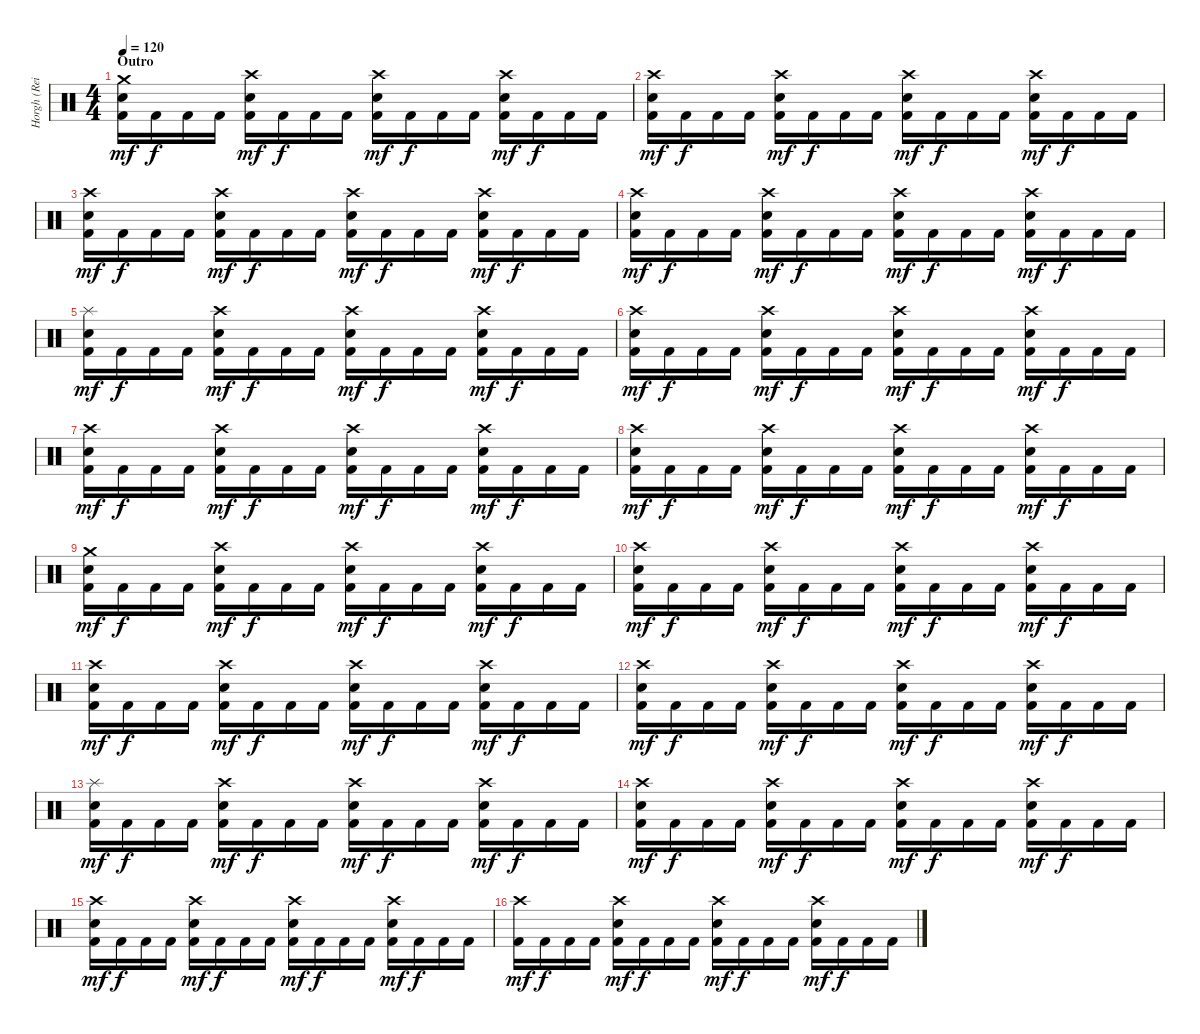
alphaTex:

\track ("Horgh (Reidar Horghagen)" "Horgh (Rei") {instrument percussion}
\staff {score}
\articulation defaults
\ts (4 4)
\section ("" "Outro")
\tempo 120
\clef neutral
\ks c
("Crash medium (hit)" "Snare (hit) 2" "Kick (hit) 2").16{dy mf} "Kick (hit) 2".16{dy f} "Kick (hit) 2".16 "Kick (hit) 2".16 ("Crash high (hit)" "Snare (hit) 2" "Kick (hit) 2").16{dy mf} "Kick (hit) 2".16{dy f} "Kick (hit) 2".16 "Kick (hit) 2".16 ("Crash high (hit)" "Snare (hit) 2" "Kick (hit) 2").16{dy mf} "Kick (hit) 2".16{dy f} "Kick (hit) 2".16 "Kick (hit) 2".16 ("Crash high (hit)" "Snare (hit) 2" "Kick (hit) 2").16{dy mf} "Kick (hit) 2".16{dy f} "Kick (hit) 2".16 "Kick (hit) 2".16 |
("Crash high (hit)" "Snare (hit) 2" "Kick (hit) 2").16{dy mf} "Kick (hit) 2".16{dy f} "Kick (hit) 2".16 "Kick (hit) 2".16 ("Crash high (hit)" "Snare (hit) 2" "Kick (hit) 2").16{dy mf} "Kick (hit) 2".16{dy f} "Kick (hit) 2".16 "Kick (hit) 2".16 ("Crash high (hit)" "Snare (hit) 2" "Kick (hit) 2").16{dy mf} "Kick (hit) 2".16{dy f} "Kick (hit) 2".16 "Kick (hit) 2".16 ("Crash high (hit)" "Snare (hit) 2" "Kick (hit) 2").16{dy mf} "Kick (hit) 2".16{dy f} "Kick (hit) 2".16 "Kick (hit) 2".16 |
("Crash high (hit)" "Snare (hit) 2" "Kick (hit) 2").16{dy mf} "Kick (hit) 2".16{dy f} "Kick (hit) 2".16 "Kick (hit) 2".16 ("Crash high (hit)" "Snare (hit) 2" "Kick (hit) 2").16{dy mf} "Kick (hit) 2".16{dy f} "Kick (hit) 2".16 "Kick (hit) 2".16 ("Crash high (hit)" "Snare (hit) 2" "Kick (hit) 2").16{dy mf} "Kick (hit) 2".16{dy f} "Kick (hit) 2".16 "Kick (hit) 2".16 ("Crash high (hit)" "Snare (hit) 2" "Kick (hit) 2").16{dy mf} "Kick (hit) 2".16{dy f} "Kick (hit) 2".16 "Kick (hit) 2".16 |
("Crash high (hit)" "Snare (hit) 2" "Kick (hit) 2").16{dy mf} "Kick (hit) 2".16{dy f} "Kick (hit) 2".16 "Kick (hit) 2".16 ("Crash high (hit)" "Snare (hit) 2" "Kick (hit) 2").16{dy mf} "Kick (hit) 2".16{dy f} "Kick (hit) 2".16 "Kick (hit) 2".16 ("Crash high (hit)" "Snare (hit) 2" "Kick (hit) 2").16{dy mf} "Kick (hit) 2".16{dy f} "Kick (hit) 2".16 "Kick (hit) 2".16 ("Crash high (hit)" "Snare (hit) 2" "Kick (hit) 2").16{dy mf} "Kick (hit) 2".16{dy f} "Kick (hit) 2".16 "Kick (hit) 2".16 |
("Splash (hit)" "Snare (hit) 2" "Kick (hit) 2").16{dy mf} "Kick (hit) 2".16{dy f} "Kick (hit) 2".16 "Kick (hit) 2".16 ("Crash high (hit)" "Snare (hit) 2" "Kick (hit) 2").16{dy mf} "Kick (hit) 2".16{dy f} "Kick (hit) 2".16 "Kick (hit) 2".16 ("Crash high (hit)" "Snare (hit) 2" "Kick (hit) 2").16{dy mf} "Kick (hit) 2".16{dy f} "Kick (hit) 2".16 "Kick (hit) 2".16 ("Crash high (hit)" "Snare (hit) 2" "Kick (hit) 2").16{dy mf} "Kick (hit) 2".16{dy f} "Kick (hit) 2".16 "Kick (hit) 2".16 |
("Crash high (hit)" "Snare (hit) 2" "Kick (hit) 2").16{dy mf} "Kick (hit) 2".16{dy f} "Kick (hit) 2".16 "Kick (hit) 2".16 ("Crash high (hit)" "Snare (hit) 2" "Kick (hit) 2").16{dy mf} "Kick (hit) 2".16{dy f} "Kick (hit) 2".16 "Kick (hit) 2".16 ("Crash high (hit)" "Snare (hit) 2" "Kick (hit) 2").16{dy mf} "Kick (hit) 2".16{dy f} "Kick (hit) 2".16 "Kick (hit) 2".16 ("Crash high (hit)" "Snare (hit) 2" "Kick (hit) 2").16{dy mf} "Kick (hit) 2".16{dy f} "Kick (hit) 2".16 "Kick (hit) 2".16 |
("Crash high (hit)" "Snare (hit) 2" "Kick (hit) 2").16{dy mf} "Kick (hit) 2".16{dy f} "Kick (hit) 2".16 "Kick (hit) 2".16 ("Crash high (hit)" "Snare (hit) 2" "Kick (hit) 2").16{dy mf} "Kick (hit) 2".16{dy f} "Kick (hit) 2".16 "Kick (hit) 2".16 ("Crash high (hit)" "Snare (hit) 2" "Kick (hit) 2").16{dy mf} "Kick (hit) 2".16{dy f} "Kick (hit) 2".16 "Kick (hit) 2".16 ("Crash high (hit)" "Snare (hit) 2" "Kick (hit) 2").16{dy mf} "Kick (hit) 2".16{dy f} "Kick (hit) 2".16 "Kick (hit) 2".16 |
("Crash high (hit)" "Snare (hit) 2" "Kick (hit) 2").16{dy mf} "Kick (hit) 2".16{dy f} "Kick (hit) 2".16 "Kick (hit) 2".16 ("Crash high (hit)" "Snare (hit) 2" "Kick (hit) 2").16{dy mf} "Kick (hit) 2".16{dy f} "Kick (hit) 2".16 "Kick (hit) 2".16 ("Crash high (hit)" "Snare (hit) 2" "Kick (hit) 2").16{dy mf} "Kick (hit) 2".16{dy f} "Kick (hit) 2".16 "Kick (hit) 2".16 ("Crash high (hit)" "Snare (hit) 2" "Kick (hit) 2").16{dy mf} "Kick (hit) 2".16{dy f} "Kick (hit) 2".16 "Kick (hit) 2".16 |
("Crash medium (hit)" "Snare (hit) 2" "Kick (hit) 2").16{dy mf} "Kick (hit) 2".16{dy f} "Kick (hit) 2".16 "Kick (hit) 2".16 ("Crash high (hit)" "Snare (hit) 2" "Kick (hit) 2").16{dy mf} "Kick (hit) 2".16{dy f} "Kick (hit) 2".16 "Kick (hit) 2".16 ("Crash high (hit)" "Snare (hit) 2" "Kick (hit) 2").16{dy mf} "Kick (hit) 2".16{dy f} "Kick (hit) 2".16 "Kick (hit) 2".16 ("Crash high (hit)" "Snare (hit) 2" "Kick (hit) 2").16{dy mf} "Kick (hit) 2".16{dy f} "Kick (hit) 2".16 "Kick (hit) 2".16 |
("Crash high (hit)" "Snare (hit) 2" "Kick (hit) 2").16{dy mf} "Kick (hit) 2".16{dy f} "Kick (hit) 2".16 "Kick (hit) 2".16 ("Crash high (hit)" "Snare (hit) 2" "Kick (hit) 2").16{dy mf} "Kick (hit) 2".16{dy f} "Kick (hit) 2".16 "Kick (hit) 2".16 ("Crash high (hit)" "Snare (hit) 2" "Kick (hit) 2").16{dy mf} "Kick (hit) 2".16{dy f} "Kick (hit) 2".16 "Kick (hit) 2".16 ("Crash high (hit)" "Snare (hit) 2" "Kick (hit) 2").16{dy mf} "Kick (hit) 2".16{dy f} "Kick (hit) 2".16 "Kick (hit) 2".16 |
("Crash high (hit)" "Snare (hit) 2" "Kick (hit) 2").16{dy mf} "Kick (hit) 2".16{dy f} "Kick (hit) 2".16 "Kick (hit) 2".16 ("Crash high (hit)" "Snare (hit) 2" "Kick (hit) 2").16{dy mf} "Kick (hit) 2".16{dy f} "Kick (hit) 2".16 "Kick (hit) 2".16 ("Crash high (hit)" "Snare (hit) 2" "Kick (hit) 2").16{dy mf} "Kick (hit) 2".16{dy f} "Kick (hit) 2".16 "Kick (hit) 2".16 ("Crash high (hit)" "Snare (hit) 2" "Kick (hit) 2").16{dy mf} "Kick (hit) 2".16{dy f} "Kick (hit) 2".16 "Kick (hit) 2".16 |
("Crash high (hit)" "Snare (hit) 2" "Kick (hit) 2").16{dy mf} "Kick (hit) 2".16{dy f} "Kick (hit) 2".16 "Kick (hit) 2".16 ("Crash high (hit)" "Snare (hit) 2" "Kick (hit) 2").16{dy mf} "Kick (hit) 2".16{dy f} "Kick (hit) 2".16 "Kick (hit) 2".16 ("Crash high (hit)" "Snare (hit) 2" "Kick (hit) 2").16{dy mf} "Kick (hit) 2".16{dy f} "Kick (hit) 2".16 "Kick (hit) 2".16 ("Crash high (hit)" "Snare (hit) 2" "Kick (hit) 2").16{dy mf} "Kick (hit) 2".16{dy f} "Kick (hit) 2".16 "Kick (hit) 2".16 |
("Splash (hit)" "Snare (hit) 2" "Kick (hit) 2").16{dy mf} "Kick (hit) 2".16{dy f} "Kick (hit) 2".16 "Kick (hit) 2".16 ("Crash high (hit)" "Snare (hit) 2" "Kick (hit) 2").16{dy mf} "Kick (hit) 2".16{dy f} "Kick (hit) 2".16 "Kick (hit) 2".16 ("Crash high (hit)" "Snare (hit) 2" "Kick (hit) 2").16{dy mf} "Kick (hit) 2".16{dy f} "Kick (hit) 2".16 "Kick (hit) 2".16 ("Crash high (hit)" "Snare (hit) 2" "Kick (hit) 2").16{dy mf} "Kick (hit) 2".16{dy f} "Kick (hit) 2".16 "Kick (hit) 2".16 |
("Crash high (hit)" "Snare (hit) 2" "Kick (hit) 2").16{dy mf} "Kick (hit) 2".16{dy f} "Kick (hit) 2".16 "Kick (hit) 2".16 ("Crash high (hit)" "Snare (hit) 2" "Kick (hit) 2").16{dy mf} "Kick (hit) 2".16{dy f} "Kick (hit) 2".16 "Kick (hit) 2".16 ("Crash high (hit)" "Snare (hit) 2" "Kick (hit) 2").16{dy mf} "Kick (hit) 2".16{dy f} "Kick (hit) 2".16 "Kick (hit) 2".16 ("Crash high (hit)" "Snare (hit) 2" "Kick (hit) 2").16{dy mf} "Kick (hit) 2".16{dy f} "Kick (hit) 2".16 "Kick (hit) 2".16 |
("Crash high (hit)" "Snare (hit) 2" "Kick (hit) 2").16{dy mf} "Kick (hit) 2".16{dy f} "Kick (hit) 2".16 "Kick (hit) 2".16 ("Crash high (hit)" "Snare (hit) 2" "Kick (hit) 2").16{dy mf} "Kick (hit) 2".16{dy f} "Kick (hit) 2".16 "Kick (hit) 2".16 ("Crash high (hit)" "Snare (hit) 2" "Kick (hit) 2").16{dy mf} "Kick (hit) 2".16{dy f} "Kick (hit) 2".16 "Kick (hit) 2".16 ("Crash high (hit)" "Snare (hit) 2" "Kick (hit) 2").16{dy mf} "Kick (hit) 2".16{dy f} "Kick (hit) 2".16 "Kick (hit) 2".16 |
("Crash high (hit)" "Kick (hit) 2").16{dy mf} "Kick (hit) 2".16{dy f} "Kick (hit) 2".16 "Kick (hit) 2".16 ("Crash high (hit)" "Snare (hit) 2" "Kick (hit) 2").16{dy mf} "Kick (hit) 2".16{dy f} "Kick (hit) 2".16 "Kick (hit) 2".16 ("Crash high (hit)" "Snare (hit) 2" "Kick (hit) 2").16{dy mf} "Kick (hit) 2".16{dy f} "Kick (hit) 2".16 "Kick (hit) 2".16 ("Crash high (hit)" "Snare (hit) 2" "Kick (hit) 2").16{dy mf} "Kick (hit) 2".16{dy f} "Kick (hit) 2".16 "Kick (hit) 2".16
